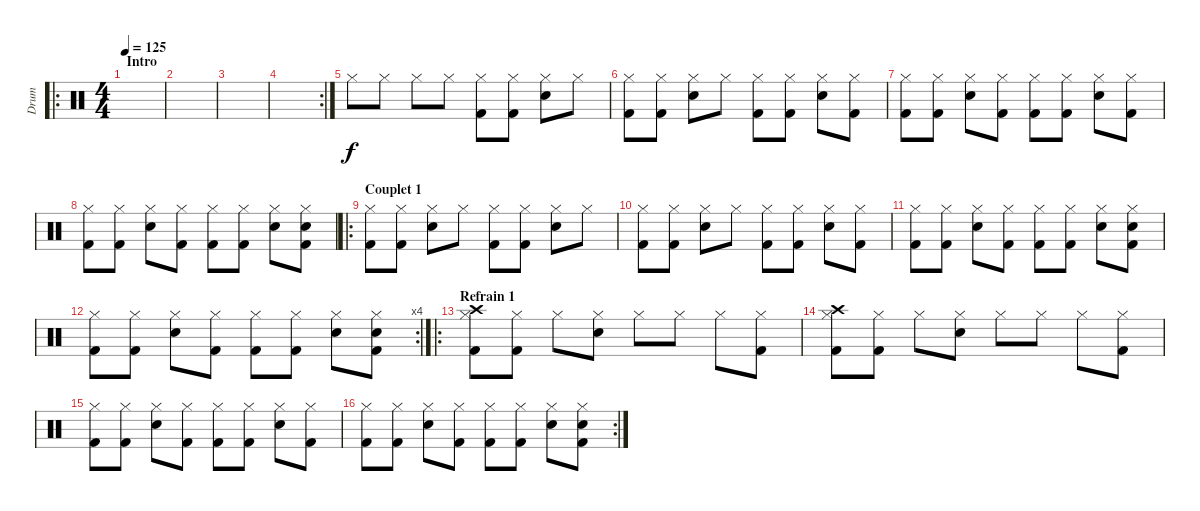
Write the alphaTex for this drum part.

\track ("Drum" "Drum") {instrument percussion}
\staff {score}
\articulation defaults
\ro
\ts (4 4)
\section ("" "Intro")
\tempo 125
\clef neutral
\ks c
|
|
|
\rc 2
|
"Hi-Hat (closed)".8 "Hi-Hat (closed)".8 "Hi-Hat (closed)".8 "Hi-Hat (closed)".8 ("Hi-Hat (closed)" "Kick (hit) 2").8 ("Hi-Hat (closed)" "Kick (hit) 2").8 ("Hi-Hat (closed)" "Electric Snare (hit)").8 "Hi-Hat (closed)".8 |
("Hi-Hat (closed)" "Kick (hit) 2").8 ("Hi-Hat (closed)" "Kick (hit) 2").8 ("Hi-Hat (closed)" "Electric Snare (hit)").8 "Hi-Hat (closed)".8 ("Hi-Hat (closed)" "Kick (hit) 2").8 ("Hi-Hat (closed)" "Kick (hit) 2").8 ("Hi-Hat (closed)" "Electric Snare (hit)").8 ("Hi-Hat (closed)" "Kick (hit) 2").8 |
("Hi-Hat (closed)" "Kick (hit) 2").8 ("Hi-Hat (closed)" "Kick (hit) 2").8 ("Hi-Hat (closed)" "Electric Snare (hit)").8 ("Hi-Hat (closed)" "Kick (hit) 2").8 ("Hi-Hat (closed)" "Kick (hit) 2").8 ("Hi-Hat (closed)" "Kick (hit) 2").8 ("Hi-Hat (closed)" "Electric Snare (hit)").8 ("Hi-Hat (closed)" "Kick (hit) 2").8 |
("Hi-Hat (closed)" "Kick (hit) 2").8 ("Hi-Hat (closed)" "Kick (hit) 2").8 ("Hi-Hat (closed)" "Electric Snare (hit)").8 ("Hi-Hat (closed)" "Kick (hit) 2").8 ("Hi-Hat (closed)" "Kick (hit) 2").8 ("Hi-Hat (closed)" "Kick (hit) 2").8 ("Hi-Hat (closed)" "Electric Snare (hit)").8 ("Hi-Hat (closed)" "Electric Snare (hit)" "Kick (hit) 2").8 |
\ro
\section ("" "Couplet 1")
("Hi-Hat (closed)" "Kick (hit) 2").8 ("Hi-Hat (closed)" "Kick (hit) 2").8 ("Hi-Hat (closed)" "Electric Snare (hit)").8 "Hi-Hat (closed)".8 ("Hi-Hat (closed)" "Kick (hit) 2").8 ("Hi-Hat (closed)" "Kick (hit) 2").8 ("Hi-Hat (closed)" "Electric Snare (hit)").8 "Hi-Hat (closed)".8 |
("Hi-Hat (closed)" "Kick (hit) 2").8 ("Hi-Hat (closed)" "Kick (hit) 2").8 ("Hi-Hat (closed)" "Electric Snare (hit)").8 "Hi-Hat (closed)".8 ("Hi-Hat (closed)" "Kick (hit) 2").8 ("Hi-Hat (closed)" "Kick (hit) 2").8 ("Hi-Hat (closed)" "Electric Snare (hit)").8 ("Hi-Hat (closed)" "Kick (hit) 2").8 |
("Hi-Hat (closed)" "Kick (hit) 2").8 ("Hi-Hat (closed)" "Kick (hit) 2").8 ("Hi-Hat (closed)" "Electric Snare (hit)").8 ("Hi-Hat (closed)" "Kick (hit) 2").8 ("Hi-Hat (closed)" "Kick (hit) 2").8 ("Hi-Hat (closed)" "Kick (hit) 2").8 ("Hi-Hat (closed)" "Electric Snare (hit)").8 ("Hi-Hat (closed)" "Electric Snare (hit)" "Kick (hit) 2").8 |
\rc 4
("Hi-Hat (closed)" "Kick (hit) 2").8 ("Hi-Hat (closed)" "Kick (hit) 2").8 ("Hi-Hat (closed)" "Electric Snare (hit)").8 ("Hi-Hat (closed)" "Kick (hit) 2").8 ("Hi-Hat (closed)" "Kick (hit) 2").8 ("Hi-Hat (closed)" "Kick (hit) 2").8 ("Hi-Hat (closed)" "Electric Snare (hit)").8 ("Hi-Hat (closed)" "Electric Snare (hit)" "Kick (hit) 2").8 |
\ro
\section ("" "Refrain 1")
("Hi-Hat (closed)" "Crash high (hit)" "Kick (hit) 2").8 ("Hi-Hat (closed)" "Kick (hit) 2").8 "Hi-Hat (closed)".8 ("Hi-Hat (closed)" "Electric Snare (hit)").8 "Hi-Hat (closed)".8 "Hi-Hat (closed)".8 "Hi-Hat (closed)".8 ("Hi-Hat (closed)" "Kick (hit) 2").8 |
("Hi-Hat (closed)" "Crash high (hit)" "Kick (hit) 2").8 ("Hi-Hat (closed)" "Kick (hit) 2").8 "Hi-Hat (closed)".8 ("Hi-Hat (closed)" "Electric Snare (hit)").8 "Hi-Hat (closed)".8 "Hi-Hat (closed)".8 "Hi-Hat (closed)".8 ("Hi-Hat (closed)" "Kick (hit) 2").8 |
("Hi-Hat (closed)" "Kick (hit) 2").8 ("Hi-Hat (closed)" "Kick (hit) 2").8 ("Hi-Hat (closed)" "Electric Snare (hit)").8 ("Hi-Hat (closed)" "Kick (hit) 2").8 ("Hi-Hat (closed)" "Kick (hit) 2").8 ("Hi-Hat (closed)" "Kick (hit) 2").8 ("Hi-Hat (closed)" "Electric Snare (hit)").8 ("Hi-Hat (closed)" "Kick (hit) 2").8 |
\rc 2
("Hi-Hat (closed)" "Kick (hit) 2").8 ("Hi-Hat (closed)" "Kick (hit) 2").8 ("Hi-Hat (closed)" "Electric Snare (hit)").8 ("Hi-Hat (closed)" "Kick (hit) 2").8 ("Hi-Hat (closed)" "Kick (hit) 2").8 ("Hi-Hat (closed)" "Kick (hit) 2").8 ("Hi-Hat (closed)" "Electric Snare (hit)").8 ("Hi-Hat (closed)" "Electric Snare (hit)" "Kick (hit) 2").8
